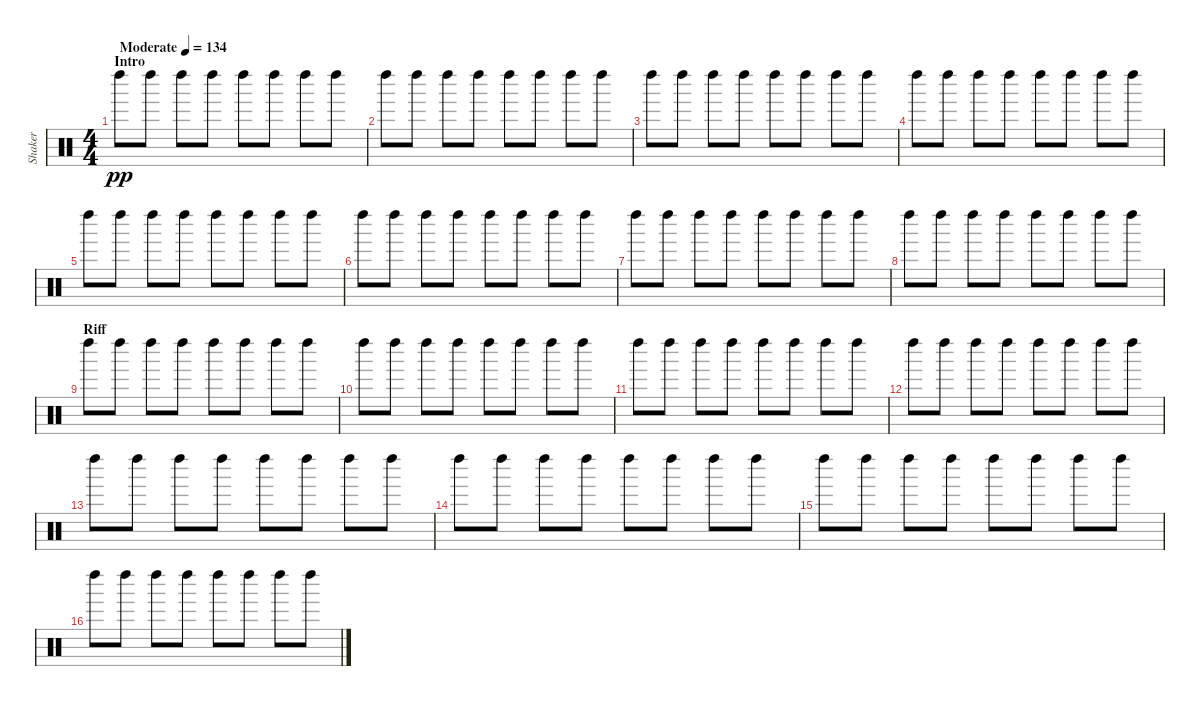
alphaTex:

\track ("Shaker" "Shaker") {instrument percussion}
\staff {score}
\articulation defaults
\ts (4 4)
\section ("" "Intro")
\tempo (134 "Moderate")
\clef neutral
\ks c "Left Maraca (hit)".8{dy pp} "Left Maraca (hit)".8 "Left Maraca (hit)".8 "Left Maraca (hit)".8 "Left Maraca (hit)".8 "Left Maraca (hit)".8 "Left Maraca (hit)".8 "Left Maraca (hit)".8
|
"Left Maraca (hit)".8 "Left Maraca (hit)".8 "Left Maraca (hit)".8 "Left Maraca (hit)".8 "Left Maraca (hit)".8 "Left Maraca (hit)".8 "Left Maraca (hit)".8 "Left Maraca (hit)".8 |
"Left Maraca (hit)".8 "Left Maraca (hit)".8 "Left Maraca (hit)".8 "Left Maraca (hit)".8 "Left Maraca (hit)".8 "Left Maraca (hit)".8 "Left Maraca (hit)".8 "Left Maraca (hit)".8 |
"Left Maraca (hit)".8 "Left Maraca (hit)".8 "Left Maraca (hit)".8 "Left Maraca (hit)".8 "Left Maraca (hit)".8 "Left Maraca (hit)".8 "Left Maraca (hit)".8 "Left Maraca (hit)".8 |
"Left Maraca (hit)".8 "Left Maraca (hit)".8 "Left Maraca (hit)".8 "Left Maraca (hit)".8 "Left Maraca (hit)".8 "Left Maraca (hit)".8 "Left Maraca (hit)".8 "Left Maraca (hit)".8 |
"Left Maraca (hit)".8 "Left Maraca (hit)".8 "Left Maraca (hit)".8 "Left Maraca (hit)".8 "Left Maraca (hit)".8 "Left Maraca (hit)".8 "Left Maraca (hit)".8 "Left Maraca (hit)".8 |
"Left Maraca (hit)".8 "Left Maraca (hit)".8 "Left Maraca (hit)".8 "Left Maraca (hit)".8 "Left Maraca (hit)".8 "Left Maraca (hit)".8 "Left Maraca (hit)".8 "Left Maraca (hit)".8 |
"Left Maraca (hit)".8 "Left Maraca (hit)".8 "Left Maraca (hit)".8 "Left Maraca (hit)".8 "Left Maraca (hit)".8 "Left Maraca (hit)".8 "Left Maraca (hit)".8 "Left Maraca (hit)".8 |
\section ("" "Riff")
"Left Maraca (hit)".8 "Left Maraca (hit)".8 "Left Maraca (hit)".8 "Left Maraca (hit)".8 "Left Maraca (hit)".8 "Left Maraca (hit)".8 "Left Maraca (hit)".8 "Left Maraca (hit)".8 |
"Left Maraca (hit)".8 "Left Maraca (hit)".8 "Left Maraca (hit)".8 "Left Maraca (hit)".8 "Left Maraca (hit)".8 "Left Maraca (hit)".8 "Left Maraca (hit)".8 "Left Maraca (hit)".8 |
"Left Maraca (hit)".8 "Left Maraca (hit)".8 "Left Maraca (hit)".8 "Left Maraca (hit)".8 "Left Maraca (hit)".8 "Left Maraca (hit)".8 "Left Maraca (hit)".8 "Left Maraca (hit)".8 |
"Left Maraca (hit)".8 "Left Maraca (hit)".8 "Left Maraca (hit)".8 "Left Maraca (hit)".8 "Left Maraca (hit)".8 "Left Maraca (hit)".8 "Left Maraca (hit)".8 "Left Maraca (hit)".8 |
"Left Maraca (hit)".8 "Left Maraca (hit)".8 "Left Maraca (hit)".8 "Left Maraca (hit)".8 "Left Maraca (hit)".8 "Left Maraca (hit)".8 "Left Maraca (hit)".8 "Left Maraca (hit)".8 |
"Left Maraca (hit)".8 "Left Maraca (hit)".8 "Left Maraca (hit)".8 "Left Maraca (hit)".8 "Left Maraca (hit)".8 "Left Maraca (hit)".8 "Left Maraca (hit)".8 "Left Maraca (hit)".8 |
"Left Maraca (hit)".8 "Left Maraca (hit)".8 "Left Maraca (hit)".8 "Left Maraca (hit)".8 "Left Maraca (hit)".8 "Left Maraca (hit)".8 "Left Maraca (hit)".8 "Left Maraca (hit)".8 |
"Left Maraca (hit)".8 "Left Maraca (hit)".8 "Left Maraca (hit)".8 "Left Maraca (hit)".8 "Left Maraca (hit)".8 "Left Maraca (hit)".8 "Left Maraca (hit)".8 "Left Maraca (hit)".8
